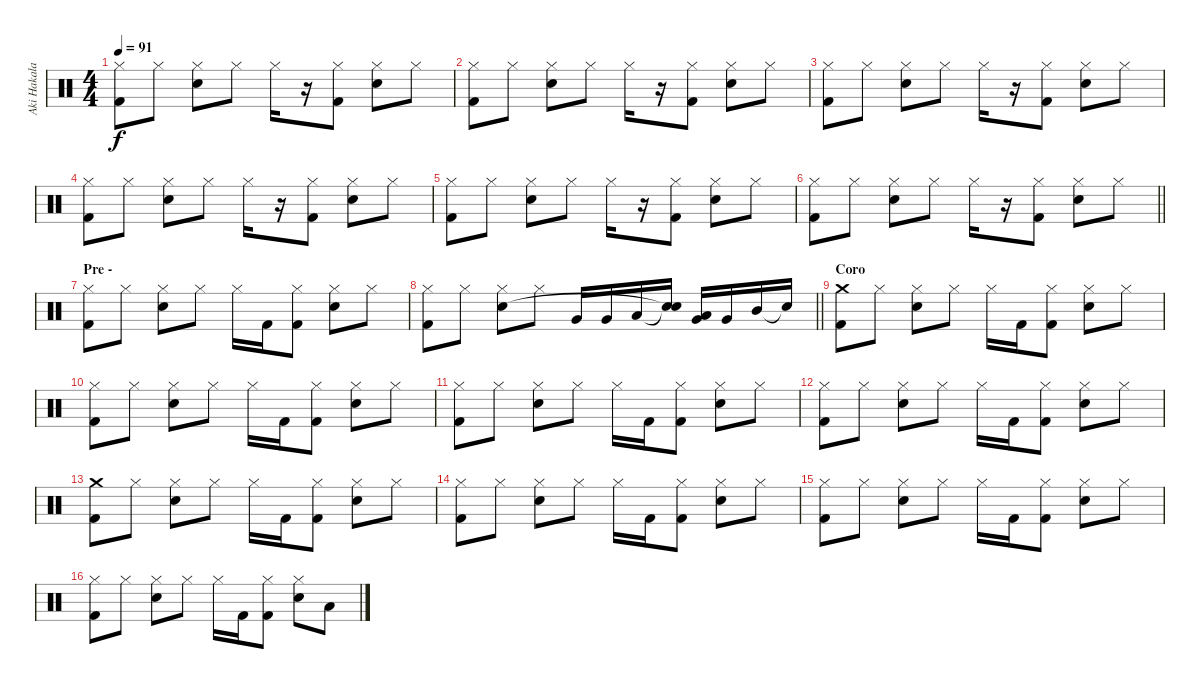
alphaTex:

\track ("Aki Hakala" "Aki Hakala") {instrument percussion}
\staff {score}
\articulation defaults
\ts (4 4)
\tempo 91
\clef neutral
\ks c
("Hi-Hat (closed)" "Kick (hit) 2").8{dy f} "Hi-Hat (closed)".8 ("Hi-Hat (closed)" "Electric Snare (hit)").8 "Hi-Hat (closed)".8 "Hi-Hat (closed)".16 r.16 ("Hi-Hat (closed)" "Kick (hit) 2").8 ("Hi-Hat (closed)" "Electric Snare (hit)").8 "Hi-Hat (closed)".8 |
("Hi-Hat (closed)" "Kick (hit) 2").8 "Hi-Hat (closed)".8 ("Hi-Hat (closed)" "Electric Snare (hit)").8 "Hi-Hat (closed)".8 "Hi-Hat (closed)".16 r.16 ("Hi-Hat (closed)" "Kick (hit) 2").8 ("Hi-Hat (closed)" "Electric Snare (hit)").8 "Hi-Hat (closed)".8 |
("Hi-Hat (closed)" "Kick (hit) 2").8 "Hi-Hat (closed)".8 ("Hi-Hat (closed)" "Electric Snare (hit)").8 "Hi-Hat (closed)".8 "Hi-Hat (closed)".16 r.16 ("Hi-Hat (closed)" "Kick (hit) 2").8 ("Hi-Hat (closed)" "Electric Snare (hit)").8 "Hi-Hat (closed)".8 |
("Hi-Hat (closed)" "Kick (hit) 2").8 "Hi-Hat (closed)".8 ("Hi-Hat (closed)" "Electric Snare (hit)").8 "Hi-Hat (closed)".8 "Hi-Hat (closed)".16 r.16 ("Hi-Hat (closed)" "Kick (hit) 2").8 ("Hi-Hat (closed)" "Electric Snare (hit)").8 "Hi-Hat (closed)".8 |
("Hi-Hat (closed)" "Kick (hit) 2").8 "Hi-Hat (closed)".8 ("Hi-Hat (closed)" "Electric Snare (hit)").8 "Hi-Hat (closed)".8 "Hi-Hat (closed)".16 r.16 ("Hi-Hat (closed)" "Kick (hit) 2").8 ("Hi-Hat (closed)" "Electric Snare (hit)").8 "Hi-Hat (closed)".8 |
\barLineRight lightlight
("Hi-Hat (closed)" "Kick (hit) 2").8 "Hi-Hat (closed)".8 ("Hi-Hat (closed)" "Electric Snare (hit)").8 "Hi-Hat (closed)".8 "Hi-Hat (closed)".16 r.16 ("Hi-Hat (closed)" "Kick (hit) 2").8 ("Hi-Hat (closed)" "Electric Snare (hit)").8 "Hi-Hat (closed)".8 |
\section ("" "Pre -")
("Hi-Hat (closed)" "Kick (hit) 2").8 "Hi-Hat (closed)".8 ("Hi-Hat (closed)" "Electric Snare (hit)").8 "Hi-Hat (closed)".8 "Hi-Hat (closed)".16 "Kick (hit) 2".16 ("Hi-Hat (closed)" "Kick (hit) 2").8 ("Hi-Hat (closed)" "Electric Snare (hit)").8 "Hi-Hat (closed)".8 |
\barLineRight lightlight
("Hi-Hat (closed)" "Kick (hit) 2").8 "Hi-Hat (closed)".8 ("Hi-Hat (closed)" "Electric Snare (hit)").8 "Hi-Hat (closed)".8 "Very Low Tom (hit)".16 "Very Low Tom (hit)".16 "Low Tom (hit)".16 ("Snare (hit)"{t} "Snare (hit)"{t}).16 ("Low Tom (hit)" "Very Low Tom (hit)").16 "Very Low Tom (hit)".16 "Mid Tom (hit)".16 "Snare (hit)"{t}.16 |
\section ("" "Coro")
("Crash medium (hit)" "Kick (hit) 2").8 "Hi-Hat (closed)".8 ("Hi-Hat (closed)" "Electric Snare (hit)").8 "Hi-Hat (closed)".8 "Hi-Hat (closed)".16 "Kick (hit) 2".16 ("Hi-Hat (closed)" "Kick (hit) 2").8 ("Hi-Hat (closed)" "Electric Snare (hit)").8 "Hi-Hat (closed)".8 |
("Hi-Hat (closed)" "Kick (hit) 2").8 "Hi-Hat (closed)".8 ("Hi-Hat (closed)" "Electric Snare (hit)").8 "Hi-Hat (closed)".8 "Hi-Hat (closed)".16 "Kick (hit) 2".16 ("Hi-Hat (closed)" "Kick (hit) 2").8 ("Hi-Hat (closed)" "Electric Snare (hit)").8 "Hi-Hat (closed)".8 |
("Hi-Hat (closed)" "Kick (hit) 2").8 "Hi-Hat (closed)".8 ("Hi-Hat (closed)" "Electric Snare (hit)").8 "Hi-Hat (closed)".8 "Hi-Hat (closed)".16 "Kick (hit) 2".16 ("Hi-Hat (closed)" "Kick (hit) 2").8 ("Hi-Hat (closed)" "Electric Snare (hit)").8 "Hi-Hat (closed)".8 |
("Hi-Hat (closed)" "Kick (hit) 2").8 "Hi-Hat (closed)".8 ("Hi-Hat (closed)" "Electric Snare (hit)").8 "Hi-Hat (closed)".8 "Hi-Hat (closed)".16 "Kick (hit) 2".16 ("Hi-Hat (closed)" "Kick (hit) 2").8 ("Hi-Hat (closed)" "Electric Snare (hit)").8 "Hi-Hat (closed)".8 |
("Crash medium (hit)" "Kick (hit) 2").8 "Hi-Hat (closed)".8 ("Hi-Hat (closed)" "Electric Snare (hit)").8 "Hi-Hat (closed)".8 "Hi-Hat (closed)".16 "Kick (hit) 2".16 ("Hi-Hat (closed)" "Kick (hit) 2").8 ("Hi-Hat (closed)" "Electric Snare (hit)").8 "Hi-Hat (closed)".8 |
("Hi-Hat (closed)" "Kick (hit) 2").8 "Hi-Hat (closed)".8 ("Hi-Hat (closed)" "Electric Snare (hit)").8 "Hi-Hat (closed)".8 "Hi-Hat (closed)".16 "Kick (hit) 2".16 ("Hi-Hat (closed)" "Kick (hit) 2").8 ("Hi-Hat (closed)" "Electric Snare (hit)").8 "Hi-Hat (closed)".8 |
("Hi-Hat (closed)" "Kick (hit) 2").8 "Hi-Hat (closed)".8 ("Hi-Hat (closed)" "Electric Snare (hit)").8 "Hi-Hat (closed)".8 "Hi-Hat (closed)".16 "Kick (hit) 2".16 ("Hi-Hat (closed)" "Kick (hit) 2").8 ("Hi-Hat (closed)" "Electric Snare (hit)").8 "Hi-Hat (closed)".8 |
("Hi-Hat (closed)" "Kick (hit) 2").8 "Hi-Hat (closed)".8 ("Hi-Hat (closed)" "Electric Snare (hit)").8 "Hi-Hat (closed)".8 "Hi-Hat (closed)".16 "Kick (hit) 2".16 ("Hi-Hat (closed)" "Kick (hit) 2").8 ("Hi-Hat (closed)" "Electric Snare (hit)").8 "Low Tom (hit)".8
